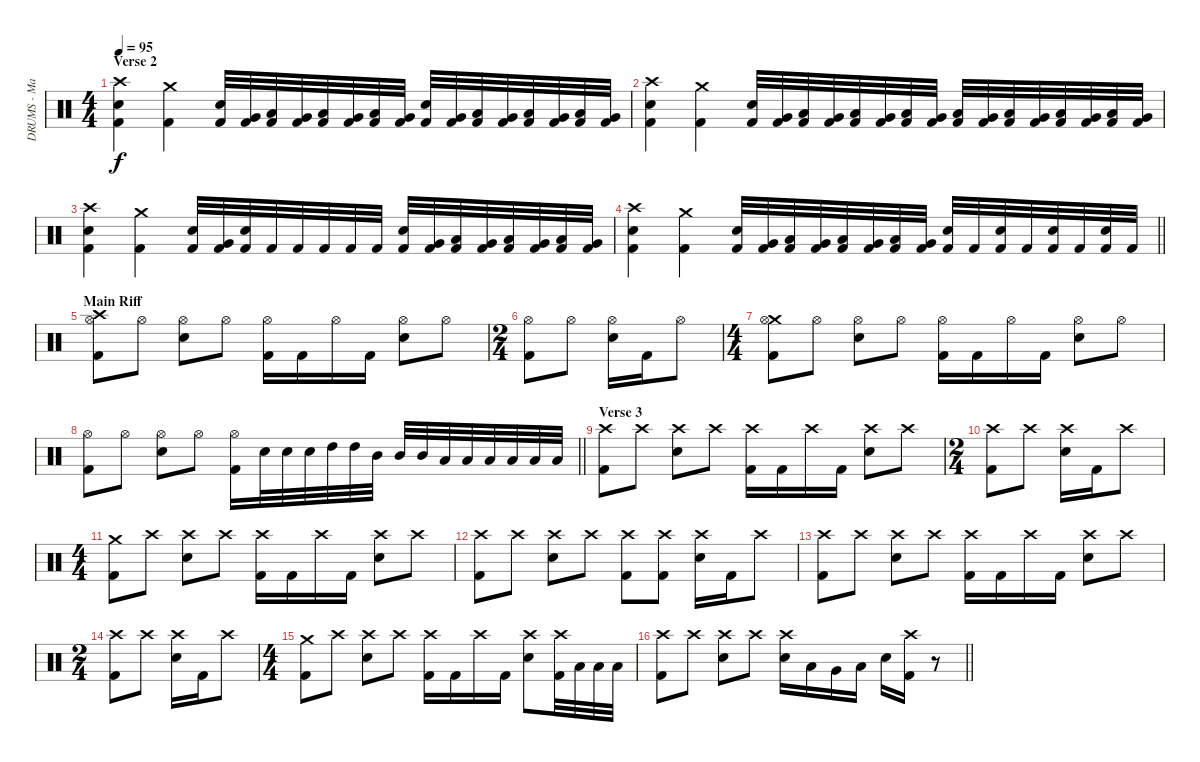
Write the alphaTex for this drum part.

\track ("DRUMS - Mario Duplantier" "DRUMS - Ma") {instrument percussion}
\staff {score}
\articulation defaults
\ts (4 4)
\section ("" "Verse 2")
\tempo 95
\clef neutral
\ks c
("Crash high (hit)" "Electric Snare (hit)" "Kick (hit) 2").4{dy f} ("Crash medium (hit)" "Kick (hit) 2").4 ("Electric Snare (hit)" "Kick (hit) 2").32 ("Very Low Tom (hit)" "Kick (hit) 2").32 ("Low Tom (hit)" "Kick (hit) 2").32 ("Very Low Tom (hit)" "Kick (hit) 2").32 ("Low Tom (hit)" "Kick (hit) 2").32 ("Very Low Tom (hit)" "Kick (hit) 2").32 ("Low Tom (hit)" "Kick (hit) 2").32 ("Very Low Tom (hit)" "Kick (hit) 2").32 ("Electric Snare (hit)" "Kick (hit) 2").32 ("Very Low Tom (hit)" "Kick (hit) 2").32 ("Low Tom (hit)" "Kick (hit) 2").32 ("Very Low Tom (hit)" "Kick (hit) 2").32 ("Low Tom (hit)" "Kick (hit) 2").32 ("Very Low Tom (hit)" "Kick (hit) 2").32 ("Low Tom (hit)" "Kick (hit) 2").32 ("Very Low Tom (hit)" "Kick (hit) 2").32 |
("Crash high (hit)" "Electric Snare (hit)" "Kick (hit) 2").4 ("Crash medium (hit)" "Kick (hit) 2").4 ("Electric Snare (hit)" "Kick (hit) 2").32 ("Very Low Tom (hit)" "Kick (hit) 2").32 ("Low Tom (hit)" "Kick (hit) 2").32 ("Very Low Tom (hit)" "Kick (hit) 2").32 ("Low Tom (hit)" "Kick (hit) 2").32 ("Very Low Tom (hit)" "Kick (hit) 2").32 ("Low Tom (hit)" "Kick (hit) 2").32 ("Very Low Tom (hit)" "Kick (hit) 2").32 ("Low Tom (hit)" "Kick (hit) 2").32 ("Very Low Tom (hit)" "Kick (hit) 2").32 ("Low Tom (hit)" "Kick (hit) 2").32 ("Very Low Tom (hit)" "Kick (hit) 2").32 ("Low Tom (hit)" "Kick (hit) 2").32 ("Very Low Tom (hit)" "Kick (hit) 2").32 ("Low Tom (hit)" "Kick (hit) 2").32 ("Very Low Tom (hit)" "Kick (hit) 2").32 |
("Crash high (hit)" "Electric Snare (hit)" "Kick (hit) 2").4 ("Crash medium (hit)" "Kick (hit) 2").4 ("Electric Snare (hit)" "Kick (hit) 2").32 ("Very Low Tom (hit)" "Kick (hit) 2").32 ("Electric Snare (hit)" "Kick (hit) 2").32 "Kick (hit) 2".32 "Kick (hit) 2".32 "Kick (hit) 2".32 "Kick (hit) 2".32 "Kick (hit) 2".32 ("Electric Snare (hit)" "Kick (hit) 2").32 ("Very Low Tom (hit)" "Kick (hit) 2").32 ("Low Tom (hit)" "Kick (hit) 2").32 ("Very Low Tom (hit)" "Kick (hit) 2").32 ("Low Tom (hit)" "Kick (hit) 2").32 ("Very Low Tom (hit)" "Kick (hit) 2").32 ("Low Tom (hit)" "Kick (hit) 2").32 ("Very Low Tom (hit)" "Kick (hit) 2").32 |
\barLineRight lightlight
("Crash high (hit)" "Electric Snare (hit)" "Kick (hit) 2").4 ("Crash medium (hit)" "Kick (hit) 2").4 ("Electric Snare (hit)" "Kick (hit) 2").32 ("Very Low Tom (hit)" "Kick (hit) 2").32 ("Low Tom (hit)" "Kick (hit) 2").32 ("Very Low Tom (hit)" "Kick (hit) 2").32 ("Low Tom (hit)" "Kick (hit) 2").32 ("Very Low Tom (hit)" "Kick (hit) 2").32 ("Low Tom (hit)" "Kick (hit) 2").32 ("Very Low Tom (hit)" "Kick (hit) 2").32 ("Electric Snare (hit)" "Kick (hit) 2").32 "Kick (hit) 2".32 ("Electric Snare (hit)" "Kick (hit) 2").32 "Kick (hit) 2".32 ("Electric Snare (hit)" "Kick (hit) 2").32 "Kick (hit) 2".32 ("Electric Snare (hit)" "Kick (hit) 2").32 "Kick (hit) 2".32 |
\section ("" "Main Riff")
("Crash high (hit)" "Hi-Hat (open)" "Kick (hit) 2").8 "Hi-Hat (open)".8 ("Hi-Hat (open)" "Electric Snare (hit)").8 "Hi-Hat (open)".8 ("Hi-Hat (open)" "Kick (hit) 2").16 "Kick (hit) 2".16 "Hi-Hat (open)".16 "Kick (hit) 2".16 ("Hi-Hat (open)" "Electric Snare (hit)").8 "Hi-Hat (open)".8 |
\ts (2 4)
("Hi-Hat (open)" "Kick (hit) 2").8 "Hi-Hat (open)".8 ("Hi-Hat (open)" "Electric Snare (hit)").16 "Kick (hit) 2".16 "Hi-Hat (open)".8 |
\ts (4 4)
("Crash medium (hit)" "Hi-Hat (open)" "Kick (hit) 2").8 "Hi-Hat (open)".8 ("Hi-Hat (open)" "Electric Snare (hit)").8 "Hi-Hat (open)".8 ("Hi-Hat (open)" "Kick (hit) 2").16 "Kick (hit) 2".16 "Hi-Hat (open)".16 "Kick (hit) 2".16 ("Hi-Hat (open)" "Electric Snare (hit)").8 "Hi-Hat (open)".8 |
\barLineRight lightlight
("Hi-Hat (open)" "Kick (hit) 2").8 "Hi-Hat (open)".8 ("Hi-Hat (open)" "Electric Snare (hit)").8 "Hi-Hat (open)".8 ("Hi-Hat (open)" "Kick (hit) 2").16 "Electric Snare (hit)".32 "Electric Snare (hit)".32 "Electric Snare (hit)".32 "High Tom (hit)".32 "High Tom (hit)".32 "Mid Tom (hit)".32 "Mid Tom (hit)".32 "Mid Tom (hit)".32 "Low Tom (hit)".32 "Low Tom (hit)".32 "Low Tom (hit)".32 "Low Tom (hit)".32 "Low Tom (hit)".32 "Low Tom (hit)".32 |
\section ("" "Verse 3")
("Crash high (hit)" "Kick (hit) 2").8 "Crash high (hit)".8 ("Crash high (hit)" "Electric Snare (hit)").8 "Crash high (hit)".8 ("Crash high (hit)" "Kick (hit) 2").16 "Kick (hit) 2".16 "Crash high (hit)".16 "Kick (hit) 2".16 ("Crash high (hit)" "Electric Snare (hit)").8 "Crash high (hit)".8 |
\ts (2 4)
("Crash high (hit)" "Kick (hit) 2").8 "Crash high (hit)".8 ("Crash high (hit)" "Electric Snare (hit)").16 "Kick (hit) 2".16 "Crash high (hit)".8 |
\ts (4 4)
("Crash medium (hit)" "Kick (hit) 2").8 "Crash high (hit)".8 ("Crash high (hit)" "Electric Snare (hit)").8 "Crash high (hit)".8 ("Crash high (hit)" "Kick (hit) 2").16 "Kick (hit) 2".16 "Crash high (hit)".16 "Kick (hit) 2".16 ("Crash high (hit)" "Electric Snare (hit)").8 "Crash high (hit)".8 |
("Crash high (hit)" "Kick (hit) 2").8 "Crash high (hit)".8 ("Crash high (hit)" "Electric Snare (hit)").8 "Crash high (hit)".8 ("Crash high (hit)" "Kick (hit) 2").8 ("Crash high (hit)" "Kick (hit) 2").8 ("Crash high (hit)" "Electric Snare (hit)").16 "Kick (hit) 2".16 "Crash high (hit)".8 |
("Crash high (hit)" "Kick (hit) 2").8 "Crash high (hit)".8 ("Crash high (hit)" "Electric Snare (hit)").8 "Crash high (hit)".8 ("Crash high (hit)" "Kick (hit) 2").16 "Kick (hit) 2".16 "Crash high (hit)".16 "Kick (hit) 2".16 ("Crash high (hit)" "Electric Snare (hit)").8 "Crash high (hit)".8 |
\ts (2 4)
("Crash high (hit)" "Kick (hit) 2").8 "Crash high (hit)".8 ("Crash high (hit)" "Electric Snare (hit)").16 "Kick (hit) 2".16 "Crash high (hit)".8 |
\ts (4 4)
("Crash medium (hit)" "Kick (hit) 2").8 "Crash high (hit)".8 ("Crash high (hit)" "Electric Snare (hit)").8 "Crash high (hit)".8 ("Crash high (hit)" "Kick (hit) 2").16 "Kick (hit) 2".16 "Crash high (hit)".16 "Kick (hit) 2".16 ("Crash high (hit)" "Electric Snare (hit)").8 ("Crash high (hit)" "Kick (hit) 2").32 "Low Tom (hit)".32 "Low Tom (hit)".32 "Low Tom (hit)".32 |
\barLineRight lightlight
("Crash high (hit)" "Kick (hit) 2").8 "Crash high (hit)".8 ("Crash high (hit)" "Electric Snare (hit)").8 "Crash high (hit)".8 ("Crash high (hit)" "Electric Snare (hit)").16 "Low Tom (hit)".16 "Very Low Tom (hit)".16 "Low Floor Tom (hit)".16 "Electric Snare (hit)".16 ("Crash high (hit)" "Kick (hit) 2").16 r.8
